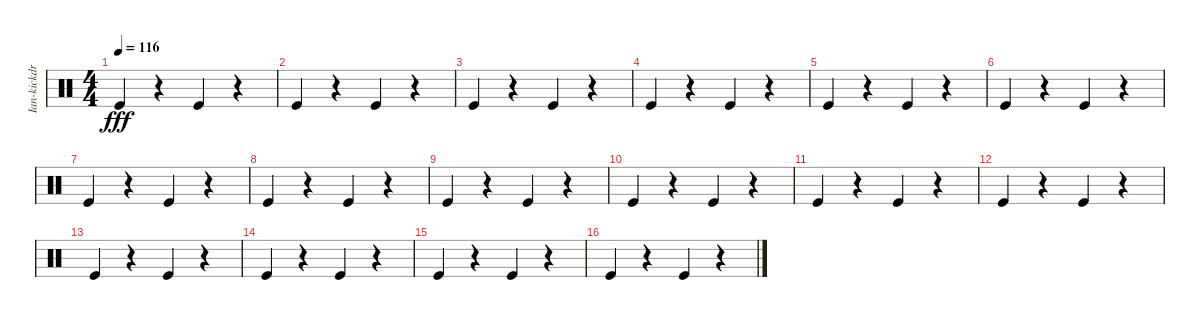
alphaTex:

\track ("Ian-kickdrum" "Ian-kickdr") {instrument percussion}
\staff {score}
\articulation defaults
\ts (4 4)
\tempo 116
\clef neutral
\ks c "Kick (hit)".4{dy fff}
r.4 "Kick (hit)".4 r.4 |
"Kick (hit)".4 r.4 "Kick (hit)".4 r.4 |
"Kick (hit)".4 r.4 "Kick (hit)".4 r.4 |
"Kick (hit)".4 r.4 "Kick (hit)".4 r.4 |
"Kick (hit)".4 r.4 "Kick (hit)".4 r.4 |
"Kick (hit)".4 r.4 "Kick (hit)".4 r.4 |
"Kick (hit)".4 r.4 "Kick (hit)".4 r.4 |
"Kick (hit)".4 r.4 "Kick (hit)".4 r.4 |
"Kick (hit)".4 r.4 "Kick (hit)".4 r.4 |
"Kick (hit)".4 r.4 "Kick (hit)".4 r.4 |
"Kick (hit)".4{volume 16} r.4 "Kick (hit)".4{volume 15} r.4 |
"Kick (hit)".4{volume 15} r.4 "Kick (hit)".4{volume 14} r.4 |
"Kick (hit)".4{volume 14} r.4 "Kick (hit)".4{volume 13} r.4 |
"Kick (hit)".4{volume 12} r.4 "Kick (hit)".4{volume 12} r.4 |
"Kick (hit)".4{volume 11} r.4 "Kick (hit)".4{volume 11} r.4 |
"Kick (hit)".4{volume 10} r.4 "Kick (hit)".4{volume 10} r.4
